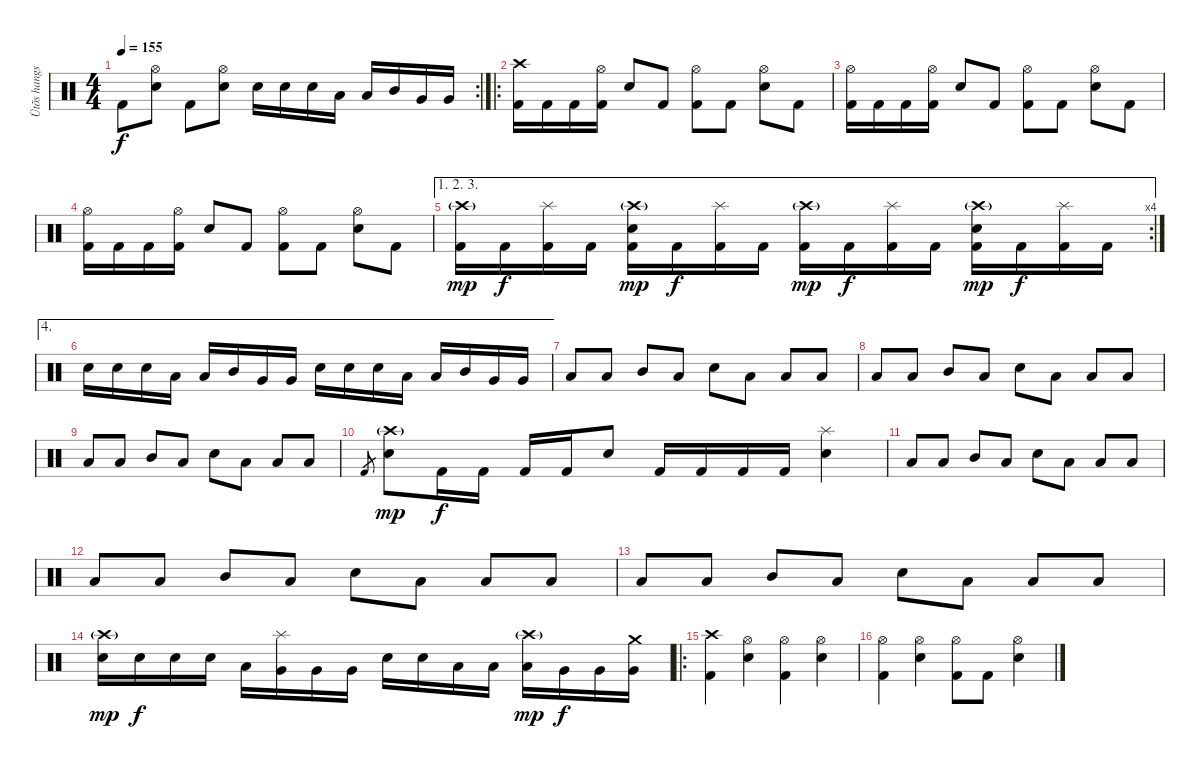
\track ("Ütõs hangszer" "Ütõs hangs") {instrument percussion}
\staff {score}
\articulation defaults
\rc 2
\ts (4 4)
\tempo 155
\clef neutral
\ks c "Kick (hit) 2".8{dy f}
("Hi-Hat (open)" "Snare (hit) 2").8 "Kick (hit) 2".8 ("Hi-Hat (open)" "Snare (hit) 2").8 "Snare (hit) 2".16 "Snare (hit) 2".16 "Snare (hit) 2".16 "Low Tom (hit)".16 "Low Tom (hit)".16 "Mid Tom (hit)".16 "Very Low Tom (hit)".16 "Very Low Tom (hit)".16 |
\ro
("Crash high (hit)" "Kick (hit) 2").16 "Kick (hit) 2".16 "Kick (hit) 2".16 ("Hi-Hat (open)" "Kick (hit) 2").16 "Snare (hit) 2".8 "Kick (hit) 2".8 ("Hi-Hat (open)" "Kick (hit) 2").8 "Kick (hit) 2".8 ("Hi-Hat (open)" "Snare (hit) 2").8 "Kick (hit) 2".8 |
("Hi-Hat (open)" "Kick (hit) 2").16 "Kick (hit) 2".16 "Kick (hit) 2".16 ("Hi-Hat (open)" "Kick (hit) 2").16 "Snare (hit) 2".8 "Kick (hit) 2".8 ("Hi-Hat (open)" "Kick (hit) 2").8 "Kick (hit) 2".8 ("Hi-Hat (open)" "Snare (hit) 2").8 "Kick (hit) 2".8 |
("Hi-Hat (open)" "Kick (hit) 2").16 "Kick (hit) 2".16 "Kick (hit) 2".16 ("Hi-Hat (open)" "Kick (hit) 2").16 "Snare (hit) 2".8 "Kick (hit) 2".8 ("Hi-Hat (open)" "Kick (hit) 2").8 "Kick (hit) 2".8 ("Hi-Hat (open)" "Snare (hit) 2").8 "Kick (hit) 2".8 |
\ae (1 2 3)
\rc 4
("Crash high (hit)"{g} "Kick (hit) 2").16{dy mp} "Kick (hit) 2".16{dy f} ("Splash (hit)" "Kick (hit) 2").16 "Kick (hit) 2".16 ("Crash high (hit)"{g} "Snare (hit) 2" "Kick (hit) 2").16{dy mp} "Kick (hit) 2".16{dy f} ("Splash (hit)" "Kick (hit) 2").16 "Kick (hit) 2".16 ("Crash high (hit)"{g} "Kick (hit) 2").16{dy mp} "Kick (hit) 2".16{dy f} ("Splash (hit)" "Kick (hit) 2").16 "Kick (hit) 2".16 ("Crash high (hit)"{g} "Snare (hit) 2" "Kick (hit) 2").16{dy mp} "Kick (hit) 2".16{dy f} ("Splash (hit)" "Kick (hit) 2").16 "Kick (hit) 2".16 |
\ae 4 "Snare (hit) 2".16 "Snare (hit) 2".16 "Snare (hit) 2".16 "Low Tom (hit)".16 "Low Tom (hit)".16 "Mid Tom (hit)".16 "Very Low Tom (hit)".16 "Very Low Tom (hit)".16 "Snare (hit) 2".16 "Snare (hit) 2".16 "Snare (hit) 2".16 "Low Tom (hit)".16 "Low Tom (hit)".16 "Mid Tom (hit)".16 "Very Low Tom (hit)".16 "Very Low Tom (hit)".16
|
"Low Tom (hit)".8 "Low Tom (hit)".8 "Mid Tom (hit)".8 "Low Tom (hit)".8 "Snare (hit) 2".8 "Low Tom (hit)".8 "Low Tom (hit)".8 "Low Tom (hit)".8 |
"Low Tom (hit)".8 "Low Tom (hit)".8 "Mid Tom (hit)".8 "Low Tom (hit)".8 "Snare (hit) 2".8 "Low Tom (hit)".8 "Low Tom (hit)".8 "Low Tom (hit)".8 |
"Low Tom (hit)".8 "Low Tom (hit)".8 "Mid Tom (hit)".8 "Low Tom (hit)".8 "Snare (hit) 2".8 "Low Tom (hit)".8 "Low Tom (hit)".8 "Low Tom (hit)".8 |
"Kick (hit) 2"{h}.8{gr} ("Crash high (hit)"{g} "Snare (hit) 2").8{dy mp} "Kick (hit) 2".16{dy f} "Kick (hit) 2".16 "Kick (hit) 2".16 "Kick (hit) 2".16 "Snare (hit) 2".8 "Kick (hit) 2".16 "Kick (hit) 2".16 "Kick (hit) 2".16 "Kick (hit) 2".16 ("Splash (hit)" "Snare (hit) 2").4 |
"Low Tom (hit)".8 "Low Tom (hit)".8 "Mid Tom (hit)".8 "Low Tom (hit)".8 "Snare (hit) 2".8 "Low Tom (hit)".8 "Low Tom (hit)".8 "Low Tom (hit)".8 |
"Low Tom (hit)".8 "Low Tom (hit)".8 "Mid Tom (hit)".8 "Low Tom (hit)".8 "Snare (hit) 2".8 "Low Tom (hit)".8 "Low Tom (hit)".8 "Low Tom (hit)".8 |
"Low Tom (hit)".8 "Low Tom (hit)".8 "Mid Tom (hit)".8 "Low Tom (hit)".8 "Snare (hit) 2".8 "Low Tom (hit)".8 "Low Tom (hit)".8 "Low Tom (hit)".8 |
("Crash high (hit)"{g} "Snare (hit) 2").16{dy mp} "Snare (hit) 2".16{dy f} "Snare (hit) 2".16 "Snare (hit) 2".16 "Low Tom (hit)".16 ("Splash (hit)" "Very Low Tom (hit)").16 "Very Low Tom (hit)".16 "Very Low Tom (hit)".16 "Snare (hit) 2".16 "Snare (hit) 2".16 "Low Tom (hit)".16 "Low Tom (hit)".16 ("Crash high (hit)"{g} "Low Tom (hit)").16{dy mp} "Very Low Tom (hit)".16{dy f} "Very Low Tom (hit)".16 ("Crash medium (hit)" "Very Low Tom (hit)").16 |
\ro
("Crash high (hit)" "Kick (hit) 2").4 ("Hi-Hat (open)" "Snare (hit) 2").4 ("Hi-Hat (open)" "Kick (hit) 2").4 ("Hi-Hat (open)" "Snare (hit) 2").4 |
("Hi-Hat (open)" "Kick (hit) 2").4 ("Hi-Hat (open)" "Snare (hit) 2").4 ("Hi-Hat (open)" "Kick (hit) 2").8 "Kick (hit) 2".8 ("Hi-Hat (open)" "Snare (hit) 2").4
